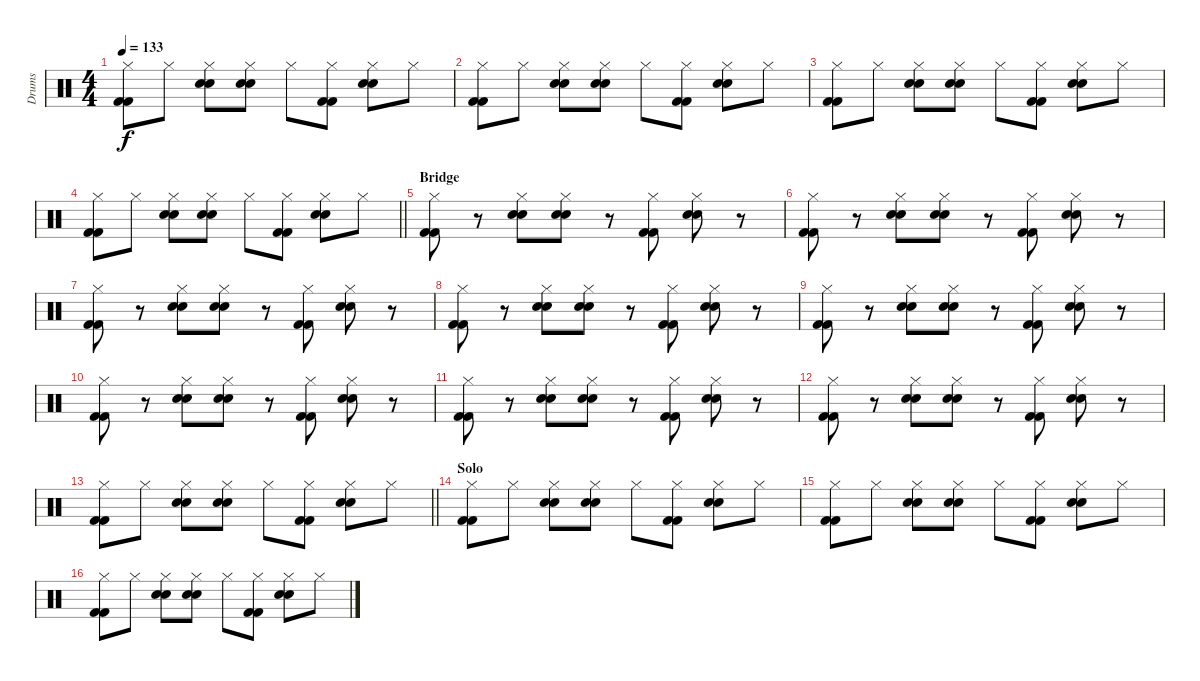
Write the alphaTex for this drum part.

\track ("Drums" "Drums") {instrument percussion}
\staff {score}
\articulation defaults
\ts (4 4)
\tempo 133
\clef neutral
\ks c
("Kick (hit) 2" "Kick (hit) 2" "Hi-Hat (closed)").8{dy f} "Hi-Hat (closed)".8 ("Snare (hit) 2" "Hi-Hat (closed)" "Electric Snare (hit)").8 ("Snare (hit) 2" "Hi-Hat (closed)" "Electric Snare (hit)").8 "Hi-Hat (closed)".8 ("Kick (hit) 2" "Kick (hit) 2" "Hi-Hat (closed)").8 ("Snare (hit) 2" "Hi-Hat (closed)" "Electric Snare (hit)").8 "Hi-Hat (closed)".8 |
("Kick (hit) 2" "Kick (hit) 2" "Hi-Hat (closed)").8 "Hi-Hat (closed)".8 ("Snare (hit) 2" "Hi-Hat (closed)" "Electric Snare (hit)").8 ("Snare (hit) 2" "Hi-Hat (closed)" "Electric Snare (hit)").8 "Hi-Hat (closed)".8 ("Kick (hit) 2" "Kick (hit) 2" "Hi-Hat (closed)").8 ("Snare (hit) 2" "Hi-Hat (closed)" "Electric Snare (hit)").8 "Hi-Hat (closed)".8 |
("Kick (hit) 2" "Kick (hit) 2" "Hi-Hat (closed)").8 "Hi-Hat (closed)".8 ("Snare (hit) 2" "Hi-Hat (closed)" "Electric Snare (hit)").8 ("Snare (hit) 2" "Hi-Hat (closed)" "Electric Snare (hit)").8 "Hi-Hat (closed)".8 ("Kick (hit) 2" "Kick (hit) 2" "Hi-Hat (closed)").8 ("Snare (hit) 2" "Hi-Hat (closed)" "Electric Snare (hit)").8 "Hi-Hat (closed)".8 |
\barLineRight lightlight
("Kick (hit) 2" "Kick (hit) 2" "Hi-Hat (closed)").8 "Hi-Hat (closed)".8 ("Snare (hit) 2" "Hi-Hat (closed)" "Electric Snare (hit)").8 ("Snare (hit) 2" "Hi-Hat (closed)" "Electric Snare (hit)").8 "Hi-Hat (closed)".8 ("Kick (hit) 2" "Kick (hit) 2" "Hi-Hat (closed)").8 ("Snare (hit) 2" "Hi-Hat (closed)" "Electric Snare (hit)").8 "Hi-Hat (closed)".8 |
\section ("" "Bridge")
("Kick (hit) 2" "Kick (hit) 2" "Hi-Hat (closed)").8 r.8 ("Snare (hit) 2" "Hi-Hat (closed)" "Electric Snare (hit)").8 ("Snare (hit) 2" "Hi-Hat (closed)" "Electric Snare (hit)").8 r.8 ("Kick (hit) 2" "Kick (hit) 2" "Hi-Hat (closed)").8 ("Snare (hit) 2" "Hi-Hat (closed)" "Electric Snare (hit)").8 r.8 |
("Kick (hit) 2" "Kick (hit) 2" "Hi-Hat (closed)").8 r.8 ("Snare (hit) 2" "Hi-Hat (closed)" "Electric Snare (hit)").8 ("Snare (hit) 2" "Hi-Hat (closed)" "Electric Snare (hit)").8 r.8 ("Kick (hit) 2" "Kick (hit) 2" "Hi-Hat (closed)").8 ("Snare (hit) 2" "Hi-Hat (closed)" "Electric Snare (hit)").8 r.8 |
("Kick (hit) 2" "Kick (hit) 2" "Hi-Hat (closed)").8 r.8 ("Snare (hit) 2" "Hi-Hat (closed)" "Electric Snare (hit)").8 ("Snare (hit) 2" "Hi-Hat (closed)" "Electric Snare (hit)").8 r.8 ("Kick (hit) 2" "Kick (hit) 2" "Hi-Hat (closed)").8 ("Snare (hit) 2" "Hi-Hat (closed)" "Electric Snare (hit)").8 r.8 |
("Kick (hit) 2" "Kick (hit) 2" "Hi-Hat (closed)").8 r.8 ("Snare (hit) 2" "Hi-Hat (closed)" "Electric Snare (hit)").8 ("Snare (hit) 2" "Hi-Hat (closed)" "Electric Snare (hit)").8 r.8 ("Kick (hit) 2" "Kick (hit) 2" "Hi-Hat (closed)").8 ("Snare (hit) 2" "Hi-Hat (closed)" "Electric Snare (hit)").8 r.8 |
("Kick (hit) 2" "Kick (hit) 2" "Hi-Hat (closed)").8 r.8 ("Snare (hit) 2" "Hi-Hat (closed)" "Electric Snare (hit)").8 ("Snare (hit) 2" "Hi-Hat (closed)" "Electric Snare (hit)").8 r.8 ("Kick (hit) 2" "Kick (hit) 2" "Hi-Hat (closed)").8 ("Snare (hit) 2" "Hi-Hat (closed)" "Electric Snare (hit)").8 r.8 |
("Kick (hit) 2" "Kick (hit) 2" "Hi-Hat (closed)").8 r.8 ("Snare (hit) 2" "Hi-Hat (closed)" "Electric Snare (hit)").8 ("Snare (hit) 2" "Hi-Hat (closed)" "Electric Snare (hit)").8 r.8 ("Kick (hit) 2" "Kick (hit) 2" "Hi-Hat (closed)").8 ("Snare (hit) 2" "Hi-Hat (closed)" "Electric Snare (hit)").8 r.8 |
("Kick (hit) 2" "Kick (hit) 2" "Hi-Hat (closed)").8 r.8 ("Snare (hit) 2" "Hi-Hat (closed)" "Electric Snare (hit)").8 ("Snare (hit) 2" "Hi-Hat (closed)" "Electric Snare (hit)").8 r.8 ("Kick (hit) 2" "Kick (hit) 2" "Hi-Hat (closed)").8 ("Snare (hit) 2" "Hi-Hat (closed)" "Electric Snare (hit)").8 r.8 |
("Kick (hit) 2" "Kick (hit) 2" "Hi-Hat (closed)").8 r.8 ("Snare (hit) 2" "Hi-Hat (closed)" "Electric Snare (hit)").8 ("Snare (hit) 2" "Hi-Hat (closed)" "Electric Snare (hit)").8 r.8 ("Kick (hit) 2" "Kick (hit) 2" "Hi-Hat (closed)").8 ("Snare (hit) 2" "Hi-Hat (closed)" "Electric Snare (hit)").8 r.8 |
\barLineRight lightlight
("Kick (hit) 2" "Kick (hit) 2" "Hi-Hat (closed)").8 "Hi-Hat (closed)".8 ("Snare (hit) 2" "Hi-Hat (closed)" "Electric Snare (hit)").8 ("Snare (hit) 2" "Hi-Hat (closed)" "Electric Snare (hit)").8 "Hi-Hat (closed)".8 ("Kick (hit) 2" "Kick (hit) 2" "Hi-Hat (closed)").8 ("Snare (hit) 2" "Hi-Hat (closed)" "Electric Snare (hit)").8 "Hi-Hat (closed)".8 |
\section ("" "Solo")
("Kick (hit) 2" "Kick (hit) 2" "Hi-Hat (closed)").8 "Hi-Hat (closed)".8 ("Snare (hit) 2" "Hi-Hat (closed)" "Electric Snare (hit)").8 ("Snare (hit) 2" "Hi-Hat (closed)" "Electric Snare (hit)").8 "Hi-Hat (closed)".8 ("Kick (hit) 2" "Kick (hit) 2" "Hi-Hat (closed)").8 ("Snare (hit) 2" "Hi-Hat (closed)" "Electric Snare (hit)").8 "Hi-Hat (closed)".8 |
("Kick (hit) 2" "Kick (hit) 2" "Hi-Hat (closed)").8 "Hi-Hat (closed)".8 ("Snare (hit) 2" "Hi-Hat (closed)" "Electric Snare (hit)").8 ("Snare (hit) 2" "Hi-Hat (closed)" "Electric Snare (hit)").8 "Hi-Hat (closed)".8 ("Kick (hit) 2" "Kick (hit) 2" "Hi-Hat (closed)").8 ("Snare (hit) 2" "Hi-Hat (closed)" "Electric Snare (hit)").8 "Hi-Hat (closed)".8 |
("Kick (hit) 2" "Kick (hit) 2" "Hi-Hat (closed)").8 "Hi-Hat (closed)".8 ("Snare (hit) 2" "Hi-Hat (closed)" "Electric Snare (hit)").8 ("Snare (hit) 2" "Hi-Hat (closed)" "Electric Snare (hit)").8 "Hi-Hat (closed)".8 ("Kick (hit) 2" "Kick (hit) 2" "Hi-Hat (closed)").8 ("Snare (hit) 2" "Hi-Hat (closed)" "Electric Snare (hit)").8 "Hi-Hat (closed)".8
